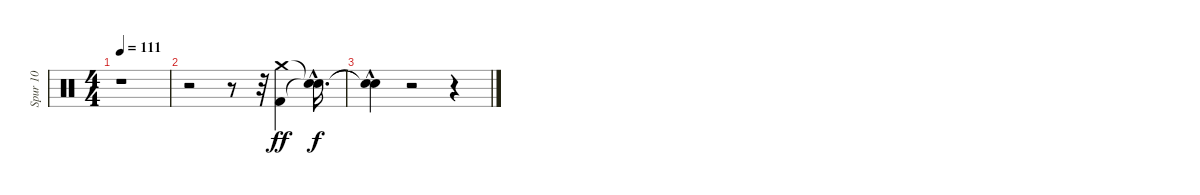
\track ("Spur 10" "Spur 10") {instrument percussion}
\staff {score}
\articulation defaults
\ts (4 4)
\tempo 111
\clef neutral
\ks c
r.1{dy f} |
r.2 r.8 r.32 ("Kick (hit) 2" "Crash medium (hit)").4{dy ff} ("Snare (hit)"{hac t} "Snare (hit)"{hac t}).16{d dy f} |
("Snare (hit)"{hac t} "Snare (hit)"{t}).4 r.2 r.4
